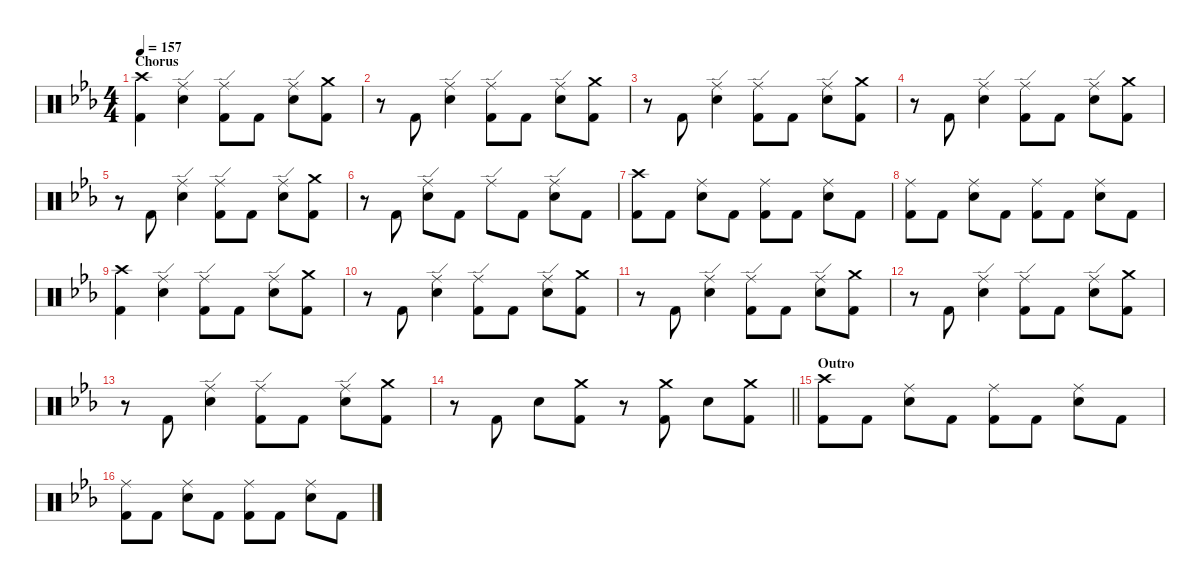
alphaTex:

\defaultSystemsLayout 4
\hideDynamics
\bracketExtendMode nobrackets
\singleTrackTrackNamePolicy hidden
\multiTrackTrackNamePolicy hidden
\firstSystemTrackNameMode fullname
\otherSystemsTrackNameOrientation horizontal
\track ("Drums" "drm.") {instrument percussion}
\staff {score}
\articulation defaults
\ts (4 4)
\section ("" "Chorus")
\tempo 157
\clef neutral
\ks cminor
("Crash high (hit)"{acc forcenatural} "Kick (hit) 2"{acc forcenatural}).4{dy f beam Down} ("Ride (edge)"{acc forcenatural} "Snare (hit) 2"{acc forcenatural}).4{beam Down} ("Ride (edge)"{acc forcenatural} "Kick (hit) 2"{acc forcenatural}).8{beam Down} "Kick (hit) 2"{acc forcenatural}.8{beam Down} ("Ride (edge)"{acc forcenatural} "Snare (hit) 2"{acc forcenatural}).8{beam Down} ("Crash medium (hit)"{acc forcenatural} "Kick (hit) 2"{acc forcenatural}).8{beam Down} |
r.8{beam Down} "Kick (hit) 2"{acc forcenatural}.8{beam Up} ("Ride (edge)"{acc forcenatural} "Snare (hit) 2"{acc forcenatural}).4{beam Down} ("Ride (edge)"{acc forcenatural} "Kick (hit) 2"{acc forcenatural}).8{beam Down} "Kick (hit) 2"{acc forcenatural}.8{beam Down} ("Ride (edge)"{acc forcenatural} "Snare (hit) 2"{acc forcenatural}).8{beam Down} ("Crash medium (hit)"{acc forcenatural} "Kick (hit) 2"{acc forcenatural}).8{beam Down} |
r.8{beam Down} "Kick (hit) 2"{acc forcenatural}.8{beam Up} ("Ride (edge)"{acc forcenatural} "Snare (hit) 2"{acc forcenatural}).4{beam Down} ("Ride (edge)"{acc forcenatural} "Kick (hit) 2"{acc forcenatural}).8{beam Down} "Kick (hit) 2"{acc forcenatural}.8{beam Down} ("Ride (edge)"{acc forcenatural} "Snare (hit) 2"{acc forcenatural}).8{beam Down} ("Crash medium (hit)"{acc forcenatural} "Kick (hit) 2"{acc forcenatural}).8{beam Down} |
r.8{beam Down} "Kick (hit) 2"{acc forcenatural}.8{beam Up} ("Ride (edge)"{acc forcenatural} "Snare (hit) 2"{acc forcenatural}).4{beam Down} ("Ride (edge)"{acc forcenatural} "Kick (hit) 2"{acc forcenatural}).8{beam Down} "Kick (hit) 2"{acc forcenatural}.8{beam Down} ("Ride (edge)"{acc forcenatural} "Snare (hit) 2"{acc forcenatural}).8{beam Down} ("Crash medium (hit)"{acc forcenatural} "Kick (hit) 2"{acc forcenatural}).8{beam Down} |
r.8{beam Down} "Kick (hit) 2"{acc forcenatural}.8{beam Up} ("Ride (edge)"{acc forcenatural} "Snare (hit) 2"{acc forcenatural}).4{beam Down} ("Ride (edge)"{acc forcenatural} "Kick (hit) 2"{acc forcenatural}).8{beam Down} "Kick (hit) 2"{acc forcenatural}.8{beam Down} ("Ride (edge)"{acc forcenatural} "Snare (hit) 2"{acc forcenatural}).8{beam Down} ("Crash medium (hit)"{acc forcenatural} "Kick (hit) 2"{acc forcenatural}).8{beam Down} |
r.8{beam Down} "Kick (hit) 2"{acc forcenatural}.8{beam Up} ("Ride (edge)"{acc forcenatural} "Snare (hit) 2"{acc forcenatural}).8{beam Down} "Kick (hit) 2"{acc forcenatural}.8{beam Down} "Ride (edge)"{acc forcenatural}.8{beam Down} "Kick (hit) 2"{acc forcenatural}.8{beam Down} ("Ride (edge)"{acc forcenatural} "Snare (hit) 2"{acc forcenatural}).8{beam Down} "Kick (hit) 2"{acc forcenatural}.8{beam Down} |
("Crash high (hit)"{acc forcenatural} "Kick (hit) 2"{acc forcenatural}).8{beam Down} "Kick (hit) 2"{acc forcenatural}.8{beam Down} ("Ride (middle)"{acc forcenatural} "Snare (hit) 2"{acc forcenatural}).8{beam Down} "Kick (hit) 2"{acc forcenatural}.8{beam Down} ("Ride (middle)"{acc forcenatural} "Kick (hit) 2"{acc forcenatural}).8{beam Down} "Kick (hit) 2"{acc forcenatural}.8{beam Down} ("Ride (middle)"{acc forcenatural} "Snare (hit) 2"{acc forcenatural}).8{beam Down} "Kick (hit) 2"{acc forcenatural}.8{beam Down} |
("Ride (middle)"{acc forcenatural} "Kick (hit) 2"{acc forcenatural}).8{beam Down} "Kick (hit) 2"{acc forcenatural}.8{beam Down} ("Ride (middle)"{acc forcenatural} "Snare (hit) 2"{acc forcenatural}).8{beam Down} "Kick (hit) 2"{acc forcenatural}.8{beam Down} ("Ride (middle)"{acc forcenatural} "Kick (hit) 2"{acc forcenatural}).8{beam Down} "Kick (hit) 2"{acc forcenatural}.8{beam Down} ("Ride (middle)"{acc forcenatural} "Snare (hit) 2"{acc forcenatural}).8{beam Down} "Kick (hit) 2"{acc forcenatural}.8{beam Down} |
("Crash high (hit)"{acc forcenatural} "Kick (hit) 2"{acc forcenatural}).4{beam Down} ("Ride (edge)"{acc forcenatural} "Snare (hit) 2"{acc forcenatural}).4{beam Down} ("Ride (edge)"{acc forcenatural} "Kick (hit) 2"{acc forcenatural}).8{beam Down} "Kick (hit) 2"{acc forcenatural}.8{beam Down} ("Ride (edge)"{acc forcenatural} "Snare (hit) 2"{acc forcenatural}).8{beam Down} ("Crash medium (hit)"{acc forcenatural} "Kick (hit) 2"{acc forcenatural}).8{beam Down} |
r.8{beam Down} "Kick (hit) 2"{acc forcenatural}.8{beam Up} ("Ride (edge)"{acc forcenatural} "Snare (hit) 2"{acc forcenatural}).4{beam Down} ("Ride (edge)"{acc forcenatural} "Kick (hit) 2"{acc forcenatural}).8{beam Down} "Kick (hit) 2"{acc forcenatural}.8{beam Down} ("Ride (edge)"{acc forcenatural} "Snare (hit) 2"{acc forcenatural}).8{beam Down} ("Crash medium (hit)"{acc forcenatural} "Kick (hit) 2"{acc forcenatural}).8{beam Down} |
r.8{beam Down} "Kick (hit) 2"{acc forcenatural}.8{beam Up} ("Ride (edge)"{acc forcenatural} "Snare (hit) 2"{acc forcenatural}).4{beam Down} ("Ride (edge)"{acc forcenatural} "Kick (hit) 2"{acc forcenatural}).8{beam Down} "Kick (hit) 2"{acc forcenatural}.8{beam Down} ("Ride (edge)"{acc forcenatural} "Snare (hit) 2"{acc forcenatural}).8{beam Down} ("Crash medium (hit)"{acc forcenatural} "Kick (hit) 2"{acc forcenatural}).8{beam Down} |
r.8{beam Down} "Kick (hit) 2"{acc forcenatural}.8{beam Up} ("Ride (edge)"{acc forcenatural} "Snare (hit) 2"{acc forcenatural}).4{beam Down} ("Ride (edge)"{acc forcenatural} "Kick (hit) 2"{acc forcenatural}).8{beam Down} "Kick (hit) 2"{acc forcenatural}.8{beam Down} ("Ride (edge)"{acc forcenatural} "Snare (hit) 2"{acc forcenatural}).8{beam Down} ("Crash medium (hit)"{acc forcenatural} "Kick (hit) 2"{acc forcenatural}).8{beam Down} |
r.8{beam Down} "Kick (hit) 2"{acc forcenatural}.8{beam Up} ("Ride (edge)"{acc forcenatural} "Snare (hit) 2"{acc forcenatural}).4{beam Down} ("Ride (edge)"{acc forcenatural} "Kick (hit) 2"{acc forcenatural}).8{beam Down} "Kick (hit) 2"{acc forcenatural}.8{beam Down} ("Ride (edge)"{acc forcenatural} "Snare (hit) 2"{acc forcenatural}).8{beam Down} ("Crash medium (hit)"{acc forcenatural} "Kick (hit) 2"{acc forcenatural}).8{beam Down} |
\barLineRight lightlight
r.8{beam Down} "Kick (hit) 2"{acc forcenatural}.8{beam Up} "Snare (hit) 2"{acc forcenatural}.8{beam Down} ("Crash medium (hit)"{acc forcenatural} "Kick (hit) 2"{acc forcenatural}).8{dy mf beam Down} r.8{beam Down} ("Crash medium (hit)"{acc forcenatural} "Kick (hit) 2"{acc forcenatural}).8{beam Down} "Snare (hit) 2"{acc forcenatural}.8{dy f beam Down} ("Crash medium (hit)"{acc forcenatural} "Kick (hit) 2"{acc forcenatural}).8{dy mf beam Down} |
\section ("" "Outro")
("Crash high (hit)"{acc forcenatural} "Kick (hit) 2"{acc forcenatural}).8{dy f beam Down} "Kick (hit) 2"{acc forcenatural}.8{beam Down} ("Ride (middle)"{acc forcenatural} "Snare (hit) 2"{acc forcenatural}).8{beam Down} "Kick (hit) 2"{acc forcenatural}.8{beam Down} ("Ride (middle)"{acc forcenatural} "Kick (hit) 2"{acc forcenatural}).8{beam Down} "Kick (hit) 2"{acc forcenatural}.8{beam Down} ("Ride (middle)"{acc forcenatural} "Snare (hit) 2"{acc forcenatural}).8{beam Down} "Kick (hit) 2"{acc forcenatural}.8{beam Down} |
("Ride (middle)"{acc forcenatural} "Kick (hit) 2"{acc forcenatural}).8{beam Down} "Kick (hit) 2"{acc forcenatural}.8{beam Down} ("Ride (middle)"{acc forcenatural} "Snare (hit) 2"{acc forcenatural}).8{beam Down} "Kick (hit) 2"{acc forcenatural}.8{beam Down} ("Ride (middle)"{acc forcenatural} "Kick (hit) 2"{acc forcenatural}).8{beam Down} "Kick (hit) 2"{acc forcenatural}.8{beam Down} ("Ride (middle)"{acc forcenatural} "Snare (hit) 2"{acc forcenatural}).8{beam Down} "Kick (hit) 2"{acc forcenatural}.8{beam Down}
